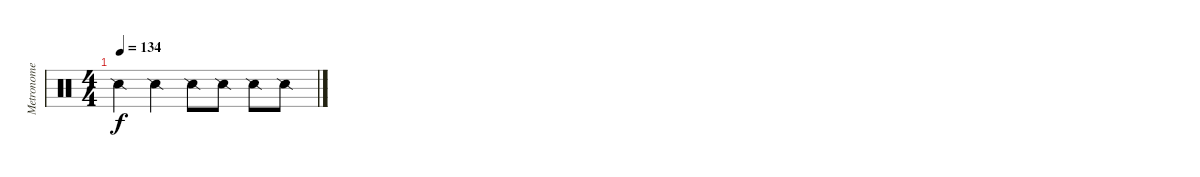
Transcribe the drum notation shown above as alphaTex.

\track ("Metronome" "Metronome") {instrument percussion}
\staff {score}
\articulation defaults
\ts (4 4)
\tempo 134
\clef neutral
\ks c "Snare (side stick) 2".4{dy f} "Snare (side stick) 2".4 "Snare (side stick) 2".8 "Snare (side stick) 2".8 "Snare (side stick) 2".8 "Snare (side stick) 2".8
